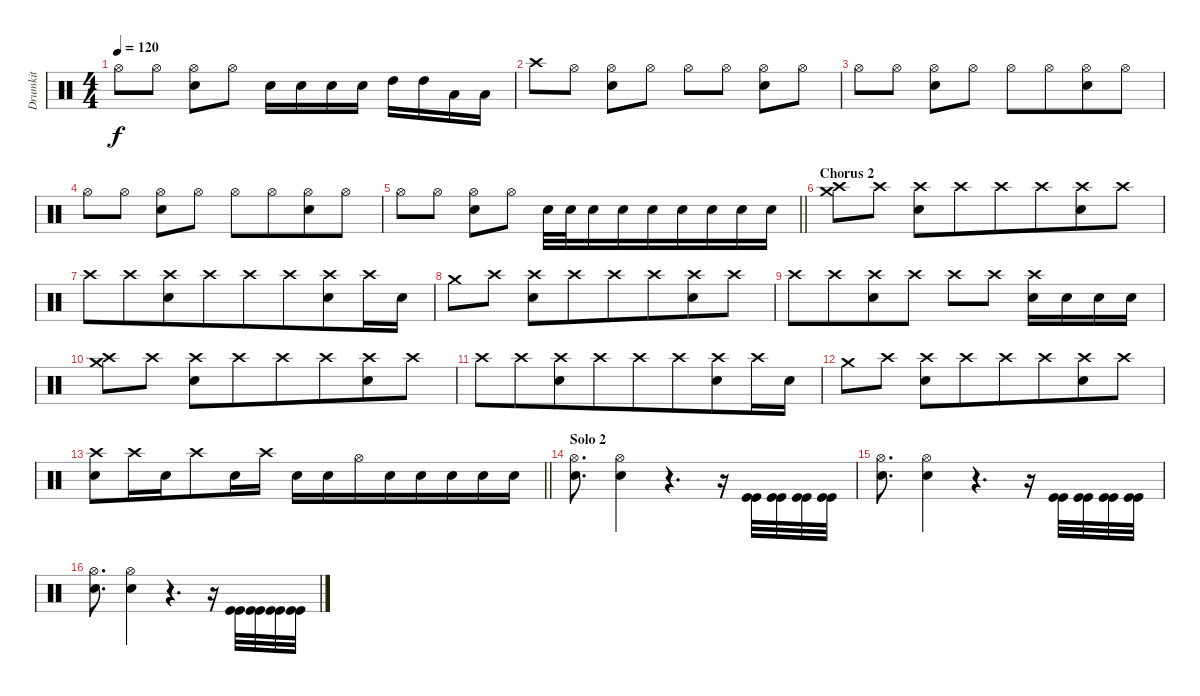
\track ("Drumkit" "Drumkit") {instrument percussion bank 2}
\staff {score}
\articulation defaults
\ts (4 4)
\tempo 120
\clef neutral
\ks c "Hi-Hat (open)".8{dy f} "Hi-Hat (open)".8
("Hi-Hat (open)" "Electric Snare (hit)").8 "Hi-Hat (open)".8 "Electric Snare (hit)".16 "Electric Snare (hit)".16{beam merge} "Electric Snare (hit)".16{beam merge} "Electric Snare (hit)".16 "High Tom (hit)".16{beam merge} "High Tom (hit)".16 "Low Floor Tom (hit)".16{beam merge} "Low Floor Tom (hit)".16 |
"Crash high (hit)".8{beam merge} "Hi-Hat (open)".8 ("Hi-Hat (open)" "Electric Snare (hit)").8 "Hi-Hat (open)".8 "Hi-Hat (open)".8{beam merge} "Hi-Hat (open)".8 ("Hi-Hat (open)" "Electric Snare (hit)").8{beam merge} "Hi-Hat (open)".8 |
"Hi-Hat (open)".8 "Hi-Hat (open)".8 ("Hi-Hat (open)" "Electric Snare (hit)").8 "Hi-Hat (open)".8 "Hi-Hat (open)".8 "Hi-Hat (open)".8{beam merge} ("Hi-Hat (open)" "Electric Snare (hit)").8{beam merge} "Hi-Hat (open)".8 |
"Hi-Hat (open)".8 "Hi-Hat (open)".8 ("Hi-Hat (open)" "Electric Snare (hit)").8 "Hi-Hat (open)".8 "Hi-Hat (open)".8 "Hi-Hat (open)".8{beam merge} ("Hi-Hat (open)" "Electric Snare (hit)").8{beam merge} "Hi-Hat (open)".8 |
\barLineRight lightlight "Hi-Hat (open)".8 "Hi-Hat (open)".8
("Hi-Hat (open)" "Electric Snare (hit)").8 "Hi-Hat (open)".8 "Electric Snare (hit)".32 "Electric Snare (hit)".32{beam merge} "Electric Snare (hit)".16{beam merge} "Electric Snare (hit)".16{beam merge} "Electric Snare (hit)".16{beam merge} "Electric Snare (hit)".16 "Electric Snare (hit)".16{beam merge} "Electric Snare (hit)".16 "Electric Snare (hit)".16 |
\section ("" "Chorus 2")
("Crash medium (hit)" "Crash high (hit)").8{beam merge} "Crash high (hit)".8 ("Crash high (hit)" "Electric Snare (hit)").8{beam merge} "Crash high (hit)".8{beam merge} "Crash high (hit)".8 "Crash high (hit)".8{beam merge} ("Crash high (hit)" "Electric Snare (hit)").8{beam merge} "Crash high (hit)".8 |
"Crash high (hit)".8 "Crash high (hit)".8{beam merge} ("Crash high (hit)" "Electric Snare (hit)").8 "Crash high (hit)".8{beam merge} "Crash high (hit)".8{beam merge} "Crash high (hit)".8{beam merge} ("Crash high (hit)" "Electric Snare (hit)").8 "Crash high (hit)".16{beam merge} "Electric Snare (hit)".16 |
"Crash medium (hit)".8 "Crash high (hit)".8 ("Crash high (hit)" "Electric Snare (hit)").8 "Crash high (hit)".8{beam merge} "Crash high (hit)".8 "Crash high (hit)".8{beam merge} ("Crash high (hit)" "Electric Snare (hit)").8 "Crash high (hit)".8 |
"Crash high (hit)".8 "Crash high (hit)".8{beam merge} ("Crash high (hit)" "Electric Snare (hit)").8{beam merge} "Crash high (hit)".8 "Crash high (hit)".8{beam merge} "Crash high (hit)".8 ("Crash high (hit)" "Electric Snare (hit)").16{beam merge} "Electric Snare (hit)".16{beam merge} "Electric Snare (hit)".16{beam merge} "Electric Snare (hit)".16 |
("Crash medium (hit)" "Crash high (hit)").8{beam merge} "Crash high (hit)".8 ("Crash high (hit)" "Electric Snare (hit)").8{beam merge} "Crash high (hit)".8{beam merge} "Crash high (hit)".8 "Crash high (hit)".8{beam merge} ("Crash high (hit)" "Electric Snare (hit)").8{beam merge} "Crash high (hit)".8 |
"Crash high (hit)".8 "Crash high (hit)".8{beam merge} ("Crash high (hit)" "Electric Snare (hit)").8 "Crash high (hit)".8{beam merge} "Crash high (hit)".8{beam merge} "Crash high (hit)".8{beam merge} ("Crash high (hit)" "Electric Snare (hit)").8 "Crash high (hit)".16 "Electric Snare (hit)".16 |
"Crash medium (hit)".8 "Crash high (hit)".8 ("Crash high (hit)" "Electric Snare (hit)").8 "Crash high (hit)".8{beam merge} "Crash high (hit)".8 "Crash high (hit)".8{beam merge} ("Crash high (hit)" "Electric Snare (hit)").8 "Crash high (hit)".8 |
\barLineRight lightlight
("Crash high (hit)" "Electric Snare (hit)").8 "Crash high (hit)".16 "Electric Snare (hit)".16{beam merge} "Crash high (hit)".8{beam merge} "Electric Snare (hit)".16{beam merge} "Crash high (hit)".16 "Electric Snare (hit)".16{beam merge} "Electric Snare (hit)".16 "Hi-Hat (open)".16{beam merge} "Electric Snare (hit)".16{beam merge} "Electric Snare (hit)".16{beam merge} "Electric Snare (hit)".16{beam merge} "Electric Snare (hit)".16{beam merge} "Electric Snare (hit)".16 |
\section ("" "Solo 2")
("Hi-Hat (open)" "Electric Snare (hit)").8{d} ("Hi-Hat (open)" "Electric Snare (hit)").4{beam merge} r.4{d beam merge} r.16{beam merge} ("Kick (hit)" "Kick (hit)").32{beam merge} ("Kick (hit)" "Kick (hit)").32{beam merge} ("Kick (hit)" "Kick (hit)").32{beam merge} ("Kick (hit)" "Kick (hit)").32 |
("Hi-Hat (open)" "Electric Snare (hit)").8{d} ("Hi-Hat (open)" "Electric Snare (hit)").4{beam merge} r.4{d beam merge} r.16{beam merge} ("Kick (hit)" "Kick (hit)").32{beam merge} ("Kick (hit)" "Kick (hit)").32{beam merge} ("Kick (hit)" "Kick (hit)").32{beam merge} ("Kick (hit)" "Kick (hit)").32 |
("Hi-Hat (open)" "Electric Snare (hit)").8{d} ("Hi-Hat (open)" "Electric Snare (hit)").4{beam merge} r.4{d beam merge} r.16{beam merge} ("Kick (hit)" "Kick (hit)").32{beam merge} ("Kick (hit)" "Kick (hit)").32{beam merge} ("Kick (hit)" "Kick (hit)").32{beam merge} ("Kick (hit)" "Kick (hit)").32
